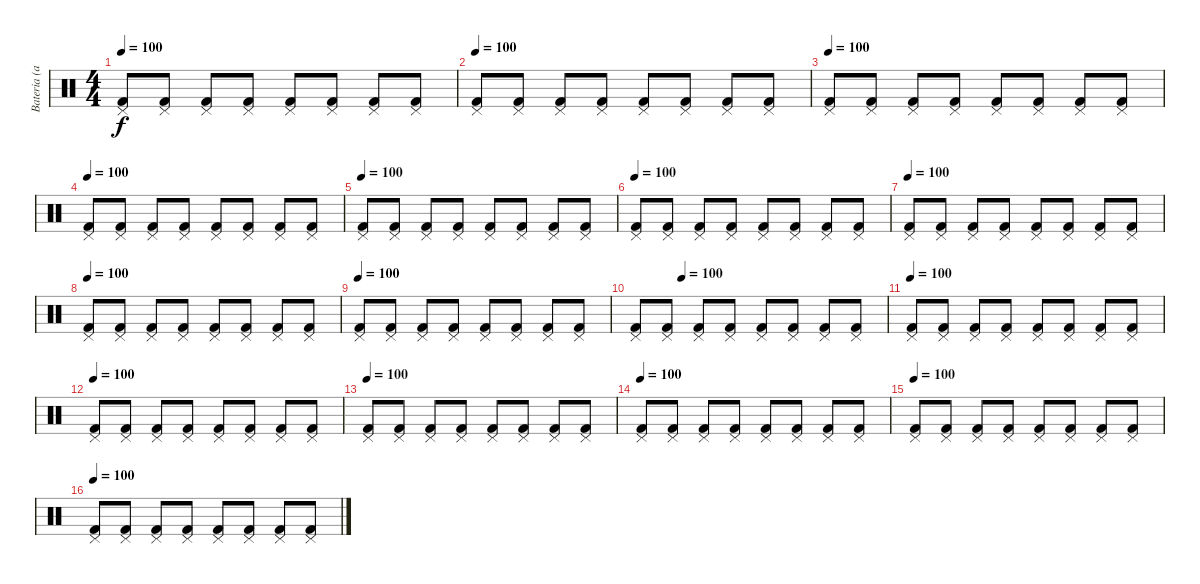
\track ("Bateria (aux)" "Bateria (a") {instrument percussion}
\staff {score}
\articulation defaults
\ts (4 4)
\tempo 100
\clef neutral
\ks c
("Pedal Hi-Hat (hit)" "Kick (hit) 2").8{dy f} ("Pedal Hi-Hat (hit)" "Kick (hit) 2").8 ("Pedal Hi-Hat (hit)" "Kick (hit) 2").8 ("Pedal Hi-Hat (hit)" "Kick (hit) 2").8 ("Pedal Hi-Hat (hit)" "Kick (hit) 2").8 ("Pedal Hi-Hat (hit)" "Kick (hit) 2").8 ("Pedal Hi-Hat (hit)" "Kick (hit) 2").8 ("Pedal Hi-Hat (hit)" "Kick (hit) 2").8 |
\tempo 100
("Pedal Hi-Hat (hit)" "Kick (hit) 2").8 ("Pedal Hi-Hat (hit)" "Kick (hit) 2").8 ("Pedal Hi-Hat (hit)" "Kick (hit) 2").8 ("Pedal Hi-Hat (hit)" "Kick (hit) 2").8 ("Pedal Hi-Hat (hit)" "Kick (hit) 2").8 ("Pedal Hi-Hat (hit)" "Kick (hit) 2").8 ("Pedal Hi-Hat (hit)" "Kick (hit) 2").8 ("Pedal Hi-Hat (hit)" "Kick (hit) 2").8 |
\tempo 100
("Pedal Hi-Hat (hit)" "Kick (hit) 2").8 ("Pedal Hi-Hat (hit)" "Kick (hit) 2").8 ("Pedal Hi-Hat (hit)" "Kick (hit) 2").8 ("Pedal Hi-Hat (hit)" "Kick (hit) 2").8 ("Pedal Hi-Hat (hit)" "Kick (hit) 2").8 ("Pedal Hi-Hat (hit)" "Kick (hit) 2").8 ("Pedal Hi-Hat (hit)" "Kick (hit) 2").8 ("Pedal Hi-Hat (hit)" "Kick (hit) 2").8 |
\tempo 100
("Pedal Hi-Hat (hit)" "Kick (hit) 2").8 ("Pedal Hi-Hat (hit)" "Kick (hit) 2").8 ("Pedal Hi-Hat (hit)" "Kick (hit) 2").8 ("Pedal Hi-Hat (hit)" "Kick (hit) 2").8 ("Pedal Hi-Hat (hit)" "Kick (hit) 2").8 ("Pedal Hi-Hat (hit)" "Kick (hit) 2").8 ("Pedal Hi-Hat (hit)" "Kick (hit) 2").8 ("Pedal Hi-Hat (hit)" "Kick (hit) 2").8 |
\tempo 100
("Pedal Hi-Hat (hit)" "Kick (hit) 2").8 ("Pedal Hi-Hat (hit)" "Kick (hit) 2").8 ("Pedal Hi-Hat (hit)" "Kick (hit) 2").8 ("Pedal Hi-Hat (hit)" "Kick (hit) 2").8 ("Pedal Hi-Hat (hit)" "Kick (hit) 2").8 ("Pedal Hi-Hat (hit)" "Kick (hit) 2").8 ("Pedal Hi-Hat (hit)" "Kick (hit) 2").8 ("Pedal Hi-Hat (hit)" "Kick (hit) 2").8 |
\tempo 100
("Pedal Hi-Hat (hit)" "Kick (hit) 2").8 ("Pedal Hi-Hat (hit)" "Kick (hit) 2").8 ("Pedal Hi-Hat (hit)" "Kick (hit) 2").8 ("Pedal Hi-Hat (hit)" "Kick (hit) 2").8 ("Pedal Hi-Hat (hit)" "Kick (hit) 2").8 ("Pedal Hi-Hat (hit)" "Kick (hit) 2").8 ("Pedal Hi-Hat (hit)" "Kick (hit) 2").8 ("Pedal Hi-Hat (hit)" "Kick (hit) 2").8 |
\tempo 100
("Pedal Hi-Hat (hit)" "Kick (hit) 2").8 ("Pedal Hi-Hat (hit)" "Kick (hit) 2").8 ("Pedal Hi-Hat (hit)" "Kick (hit) 2").8 ("Pedal Hi-Hat (hit)" "Kick (hit) 2").8 ("Pedal Hi-Hat (hit)" "Kick (hit) 2").8 ("Pedal Hi-Hat (hit)" "Kick (hit) 2").8 ("Pedal Hi-Hat (hit)" "Kick (hit) 2").8 ("Pedal Hi-Hat (hit)" "Kick (hit) 2").8 |
\tempo 100
("Pedal Hi-Hat (hit)" "Kick (hit) 2").8 ("Pedal Hi-Hat (hit)" "Kick (hit) 2").8 ("Pedal Hi-Hat (hit)" "Kick (hit) 2").8 ("Pedal Hi-Hat (hit)" "Kick (hit) 2").8 ("Pedal Hi-Hat (hit)" "Kick (hit) 2").8 ("Pedal Hi-Hat (hit)" "Kick (hit) 2").8 ("Pedal Hi-Hat (hit)" "Kick (hit) 2").8 ("Pedal Hi-Hat (hit)" "Kick (hit) 2").8 |
\tempo 100
("Pedal Hi-Hat (hit)" "Kick (hit) 2").8 ("Pedal Hi-Hat (hit)" "Kick (hit) 2").8 ("Pedal Hi-Hat (hit)" "Kick (hit) 2").8 ("Pedal Hi-Hat (hit)" "Kick (hit) 2").8 ("Pedal Hi-Hat (hit)" "Kick (hit) 2").8 ("Pedal Hi-Hat (hit)" "Kick (hit) 2").8 ("Pedal Hi-Hat (hit)" "Kick (hit) 2").8 ("Pedal Hi-Hat (hit)" "Kick (hit) 2").8 |
\tempo (100 0.1875)
("Pedal Hi-Hat (hit)" "Kick (hit) 2").8 ("Pedal Hi-Hat (hit)" "Kick (hit) 2").8 ("Pedal Hi-Hat (hit)" "Kick (hit) 2").8 ("Pedal Hi-Hat (hit)" "Kick (hit) 2").8 ("Pedal Hi-Hat (hit)" "Kick (hit) 2").8 ("Pedal Hi-Hat (hit)" "Kick (hit) 2").8 ("Pedal Hi-Hat (hit)" "Kick (hit) 2").8 ("Pedal Hi-Hat (hit)" "Kick (hit) 2").8 |
\tempo 100
("Pedal Hi-Hat (hit)" "Kick (hit) 2").8 ("Pedal Hi-Hat (hit)" "Kick (hit) 2").8 ("Pedal Hi-Hat (hit)" "Kick (hit) 2").8 ("Pedal Hi-Hat (hit)" "Kick (hit) 2").8 ("Pedal Hi-Hat (hit)" "Kick (hit) 2").8 ("Pedal Hi-Hat (hit)" "Kick (hit) 2").8 ("Pedal Hi-Hat (hit)" "Kick (hit) 2").8 ("Pedal Hi-Hat (hit)" "Kick (hit) 2").8 |
\tempo 100
("Pedal Hi-Hat (hit)" "Kick (hit) 2").8 ("Pedal Hi-Hat (hit)" "Kick (hit) 2").8 ("Pedal Hi-Hat (hit)" "Kick (hit) 2").8 ("Pedal Hi-Hat (hit)" "Kick (hit) 2").8 ("Pedal Hi-Hat (hit)" "Kick (hit) 2").8 ("Pedal Hi-Hat (hit)" "Kick (hit) 2").8 ("Pedal Hi-Hat (hit)" "Kick (hit) 2").8 ("Pedal Hi-Hat (hit)" "Kick (hit) 2").8 |
\tempo 100
("Pedal Hi-Hat (hit)" "Kick (hit) 2").8 ("Pedal Hi-Hat (hit)" "Kick (hit) 2").8 ("Pedal Hi-Hat (hit)" "Kick (hit) 2").8 ("Pedal Hi-Hat (hit)" "Kick (hit) 2").8 ("Pedal Hi-Hat (hit)" "Kick (hit) 2").8 ("Pedal Hi-Hat (hit)" "Kick (hit) 2").8 ("Pedal Hi-Hat (hit)" "Kick (hit) 2").8 ("Pedal Hi-Hat (hit)" "Kick (hit) 2").8 |
\tempo 100
("Pedal Hi-Hat (hit)" "Kick (hit) 2").8 ("Pedal Hi-Hat (hit)" "Kick (hit) 2").8 ("Pedal Hi-Hat (hit)" "Kick (hit) 2").8 ("Pedal Hi-Hat (hit)" "Kick (hit) 2").8 ("Pedal Hi-Hat (hit)" "Kick (hit) 2").8 ("Pedal Hi-Hat (hit)" "Kick (hit) 2").8 ("Pedal Hi-Hat (hit)" "Kick (hit) 2").8 ("Pedal Hi-Hat (hit)" "Kick (hit) 2").8 |
\tempo 100
("Pedal Hi-Hat (hit)" "Kick (hit) 2").8 ("Pedal Hi-Hat (hit)" "Kick (hit) 2").8 ("Pedal Hi-Hat (hit)" "Kick (hit) 2").8 ("Pedal Hi-Hat (hit)" "Kick (hit) 2").8 ("Pedal Hi-Hat (hit)" "Kick (hit) 2").8 ("Pedal Hi-Hat (hit)" "Kick (hit) 2").8 ("Pedal Hi-Hat (hit)" "Kick (hit) 2").8 ("Pedal Hi-Hat (hit)" "Kick (hit) 2").8 |
\tempo 100
("Pedal Hi-Hat (hit)" "Kick (hit) 2").8 ("Pedal Hi-Hat (hit)" "Kick (hit) 2").8 ("Pedal Hi-Hat (hit)" "Kick (hit) 2").8 ("Pedal Hi-Hat (hit)" "Kick (hit) 2").8 ("Pedal Hi-Hat (hit)" "Kick (hit) 2").8 ("Pedal Hi-Hat (hit)" "Kick (hit) 2").8 ("Pedal Hi-Hat (hit)" "Kick (hit) 2").8 ("Pedal Hi-Hat (hit)" "Kick (hit) 2").8
